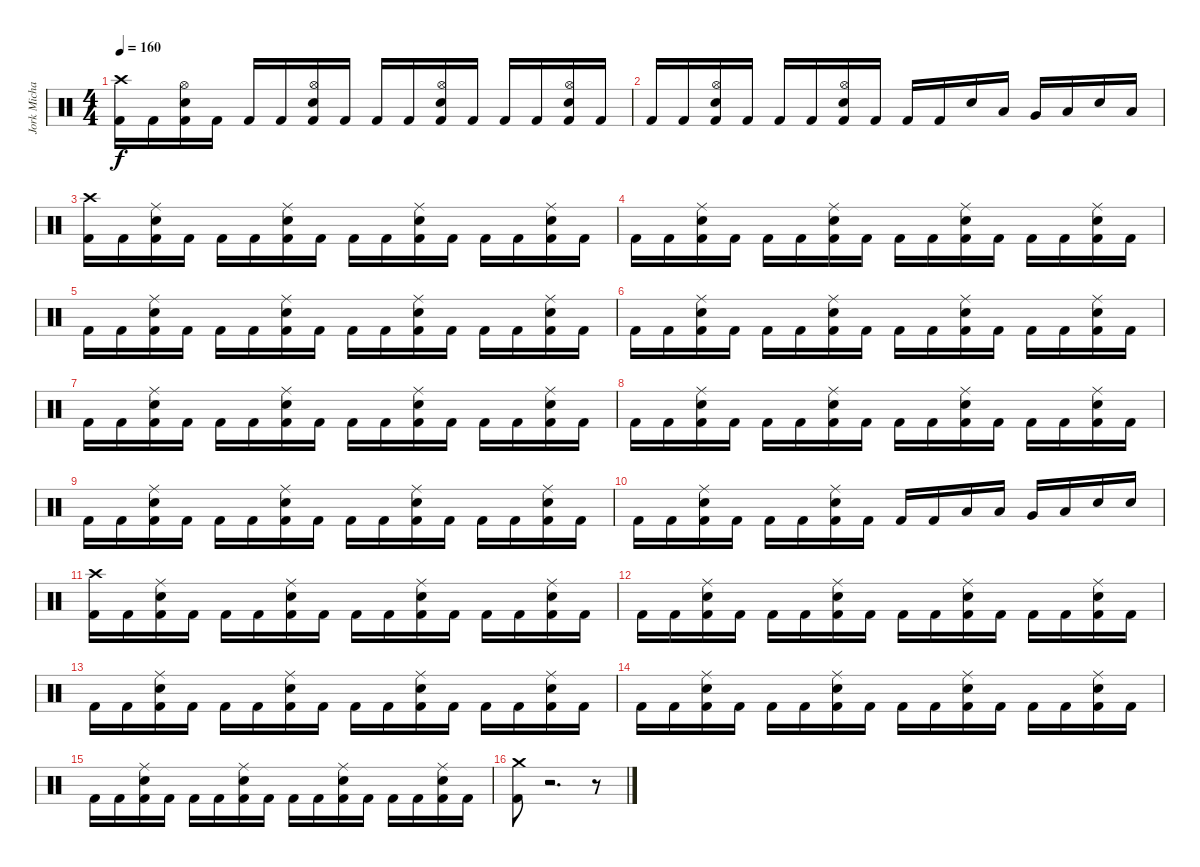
\track ("Jork Michael" "Jork Micha") {instrument percussion}
\staff {score}
\articulation defaults
\ts (4 4)
\tempo 160
\clef neutral
\ks c
("Crash high (hit)" "Kick (hit) 2").16{dy f} "Kick (hit) 2".16 ("Hi-Hat (open)" "Electric Snare (hit)" "Kick (hit) 2").16 "Kick (hit) 2".16 "Kick (hit) 2".16 "Kick (hit) 2".16 ("Hi-Hat (open)" "Electric Snare (hit)" "Kick (hit) 2").16 "Kick (hit) 2".16 "Kick (hit) 2".16 "Kick (hit) 2".16 ("Hi-Hat (open)" "Electric Snare (hit)" "Kick (hit) 2").16 "Kick (hit) 2".16 "Kick (hit) 2".16 "Kick (hit) 2".16 ("Hi-Hat (open)" "Electric Snare (hit)" "Kick (hit) 2").16 "Kick (hit) 2".16 |
"Kick (hit) 2".16 "Kick (hit) 2".16 ("Hi-Hat (open)" "Electric Snare (hit)" "Kick (hit) 2").16 "Kick (hit) 2".16 "Kick (hit) 2".16 "Kick (hit) 2".16 ("Hi-Hat (open)" "Electric Snare (hit)" "Kick (hit) 2").16 "Kick (hit) 2".16 "Kick (hit) 2".16 "Kick (hit) 2".16 "Electric Snare (hit)".16 "Low Floor Tom (hit)".16 "Very Low Tom (hit)".16 "Low Floor Tom (hit)".16 "Electric Snare (hit)".16 "Low Floor Tom (hit)".16 |
("Crash high (hit)" "Kick (hit) 2").16 "Kick (hit) 2".16 ("Ride (middle)" "Electric Snare (hit)" "Kick (hit) 2").16 "Kick (hit) 2".16 "Kick (hit) 2".16 "Kick (hit) 2".16 ("Ride (middle)" "Electric Snare (hit)" "Kick (hit) 2").16 "Kick (hit) 2".16 "Kick (hit) 2".16 "Kick (hit) 2".16 ("Ride (middle)" "Electric Snare (hit)" "Kick (hit) 2").16 "Kick (hit) 2".16 "Kick (hit) 2".16 "Kick (hit) 2".16 ("Ride (middle)" "Electric Snare (hit)" "Kick (hit) 2").16 "Kick (hit) 2".16 |
"Kick (hit) 2".16 "Kick (hit) 2".16 ("Ride (middle)" "Electric Snare (hit)" "Kick (hit) 2").16 "Kick (hit) 2".16 "Kick (hit) 2".16 "Kick (hit) 2".16 ("Ride (middle)" "Electric Snare (hit)" "Kick (hit) 2").16 "Kick (hit) 2".16 "Kick (hit) 2".16 "Kick (hit) 2".16 ("Ride (middle)" "Electric Snare (hit)" "Kick (hit) 2").16 "Kick (hit) 2".16 "Kick (hit) 2".16 "Kick (hit) 2".16 ("Ride (middle)" "Electric Snare (hit)" "Kick (hit) 2").16 "Kick (hit) 2".16 |
"Kick (hit) 2".16 "Kick (hit) 2".16 ("Ride (middle)" "Electric Snare (hit)" "Kick (hit) 2").16 "Kick (hit) 2".16 "Kick (hit) 2".16 "Kick (hit) 2".16 ("Ride (middle)" "Electric Snare (hit)" "Kick (hit) 2").16 "Kick (hit) 2".16 "Kick (hit) 2".16 "Kick (hit) 2".16 ("Ride (middle)" "Electric Snare (hit)" "Kick (hit) 2").16 "Kick (hit) 2".16 "Kick (hit) 2".16 "Kick (hit) 2".16 ("Ride (middle)" "Electric Snare (hit)" "Kick (hit) 2").16 "Kick (hit) 2".16 |
"Kick (hit) 2".16 "Kick (hit) 2".16 ("Ride (middle)" "Electric Snare (hit)" "Kick (hit) 2").16 "Kick (hit) 2".16 "Kick (hit) 2".16 "Kick (hit) 2".16 ("Ride (middle)" "Electric Snare (hit)" "Kick (hit) 2").16 "Kick (hit) 2".16 "Kick (hit) 2".16 "Kick (hit) 2".16 ("Ride (middle)" "Electric Snare (hit)" "Kick (hit) 2").16 "Kick (hit) 2".16 "Kick (hit) 2".16 "Kick (hit) 2".16 ("Ride (middle)" "Electric Snare (hit)" "Kick (hit) 2").16 "Kick (hit) 2".16 |
"Kick (hit) 2".16 "Kick (hit) 2".16 ("Ride (middle)" "Electric Snare (hit)" "Kick (hit) 2").16 "Kick (hit) 2".16 "Kick (hit) 2".16 "Kick (hit) 2".16 ("Ride (middle)" "Electric Snare (hit)" "Kick (hit) 2").16 "Kick (hit) 2".16 "Kick (hit) 2".16 "Kick (hit) 2".16 ("Ride (middle)" "Electric Snare (hit)" "Kick (hit) 2").16 "Kick (hit) 2".16 "Kick (hit) 2".16 "Kick (hit) 2".16 ("Ride (middle)" "Electric Snare (hit)" "Kick (hit) 2").16 "Kick (hit) 2".16 |
"Kick (hit) 2".16 "Kick (hit) 2".16 ("Ride (middle)" "Electric Snare (hit)" "Kick (hit) 2").16 "Kick (hit) 2".16 "Kick (hit) 2".16 "Kick (hit) 2".16 ("Ride (middle)" "Electric Snare (hit)" "Kick (hit) 2").16 "Kick (hit) 2".16 "Kick (hit) 2".16 "Kick (hit) 2".16 ("Ride (middle)" "Electric Snare (hit)" "Kick (hit) 2").16 "Kick (hit) 2".16 "Kick (hit) 2".16 "Kick (hit) 2".16 ("Ride (middle)" "Electric Snare (hit)" "Kick (hit) 2").16 "Kick (hit) 2".16 |
"Kick (hit) 2".16 "Kick (hit) 2".16 ("Ride (middle)" "Electric Snare (hit)" "Kick (hit) 2").16 "Kick (hit) 2".16 "Kick (hit) 2".16 "Kick (hit) 2".16 ("Ride (middle)" "Electric Snare (hit)" "Kick (hit) 2").16 "Kick (hit) 2".16 "Kick (hit) 2".16 "Kick (hit) 2".16 ("Ride (middle)" "Electric Snare (hit)" "Kick (hit) 2").16 "Kick (hit) 2".16 "Kick (hit) 2".16 "Kick (hit) 2".16 ("Ride (middle)" "Electric Snare (hit)" "Kick (hit) 2").16 "Kick (hit) 2".16 |
"Kick (hit) 2".16 "Kick (hit) 2".16 ("Ride (middle)" "Electric Snare (hit)" "Kick (hit) 2").16 "Kick (hit) 2".16 "Kick (hit) 2".16 "Kick (hit) 2".16 ("Ride (middle)" "Electric Snare (hit)" "Kick (hit) 2").16 "Kick (hit) 2".16 "Kick (hit) 2".16 "Kick (hit) 2".16 "Low Floor Tom (hit)".16 "Low Tom (hit)".16 "Very Low Tom (hit)".16 "Low Floor Tom (hit)".16 "Electric Snare (hit)".16 "Electric Snare (hit)".16 |
("Crash high (hit)" "Kick (hit) 2").16 "Kick (hit) 2".16 ("Ride (middle)" "Electric Snare (hit)" "Kick (hit) 2").16 "Kick (hit) 2".16 "Kick (hit) 2".16 "Kick (hit) 2".16 ("Ride (middle)" "Electric Snare (hit)" "Kick (hit) 2").16 "Kick (hit) 2".16 "Kick (hit) 2".16 "Kick (hit) 2".16 ("Ride (middle)" "Electric Snare (hit)" "Kick (hit) 2").16 "Kick (hit) 2".16 "Kick (hit) 2".16 "Kick (hit) 2".16 ("Ride (middle)" "Electric Snare (hit)" "Kick (hit) 2").16 "Kick (hit) 2".16 |
"Kick (hit) 2".16 "Kick (hit) 2".16 ("Ride (middle)" "Electric Snare (hit)" "Kick (hit) 2").16 "Kick (hit) 2".16 "Kick (hit) 2".16 "Kick (hit) 2".16 ("Ride (middle)" "Electric Snare (hit)" "Kick (hit) 2").16 "Kick (hit) 2".16 "Kick (hit) 2".16 "Kick (hit) 2".16 ("Ride (middle)" "Electric Snare (hit)" "Kick (hit) 2").16 "Kick (hit) 2".16 "Kick (hit) 2".16 "Kick (hit) 2".16 ("Ride (middle)" "Electric Snare (hit)" "Kick (hit) 2").16 "Kick (hit) 2".16 |
"Kick (hit) 2".16 "Kick (hit) 2".16 ("Ride (middle)" "Electric Snare (hit)" "Kick (hit) 2").16 "Kick (hit) 2".16 "Kick (hit) 2".16 "Kick (hit) 2".16 ("Ride (middle)" "Electric Snare (hit)" "Kick (hit) 2").16 "Kick (hit) 2".16 "Kick (hit) 2".16 "Kick (hit) 2".16 ("Ride (middle)" "Electric Snare (hit)" "Kick (hit) 2").16 "Kick (hit) 2".16 "Kick (hit) 2".16 "Kick (hit) 2".16 ("Ride (middle)" "Electric Snare (hit)" "Kick (hit) 2").16 "Kick (hit) 2".16 |
"Kick (hit) 2".16 "Kick (hit) 2".16 ("Ride (middle)" "Electric Snare (hit)" "Kick (hit) 2").16 "Kick (hit) 2".16 "Kick (hit) 2".16 "Kick (hit) 2".16 ("Ride (middle)" "Electric Snare (hit)" "Kick (hit) 2").16 "Kick (hit) 2".16 "Kick (hit) 2".16 "Kick (hit) 2".16 ("Ride (middle)" "Electric Snare (hit)" "Kick (hit) 2").16 "Kick (hit) 2".16 "Kick (hit) 2".16 "Kick (hit) 2".16 ("Ride (middle)" "Electric Snare (hit)" "Kick (hit) 2").16 "Kick (hit) 2".16 |
"Kick (hit) 2".16 "Kick (hit) 2".16 ("Ride (middle)" "Electric Snare (hit)" "Kick (hit) 2").16 "Kick (hit) 2".16 "Kick (hit) 2".16 "Kick (hit) 2".16 ("Ride (middle)" "Electric Snare (hit)" "Kick (hit) 2").16 "Kick (hit) 2".16 "Kick (hit) 2".16 "Kick (hit) 2".16 ("Ride (middle)" "Electric Snare (hit)" "Kick (hit) 2").16 "Kick (hit) 2".16 "Kick (hit) 2".16 "Kick (hit) 2".16 ("Ride (middle)" "Electric Snare (hit)" "Kick (hit) 2").16 "Kick (hit) 2".16 |
("Crash medium (hit)" "Kick (hit) 2").8 r.2{d} r.8
